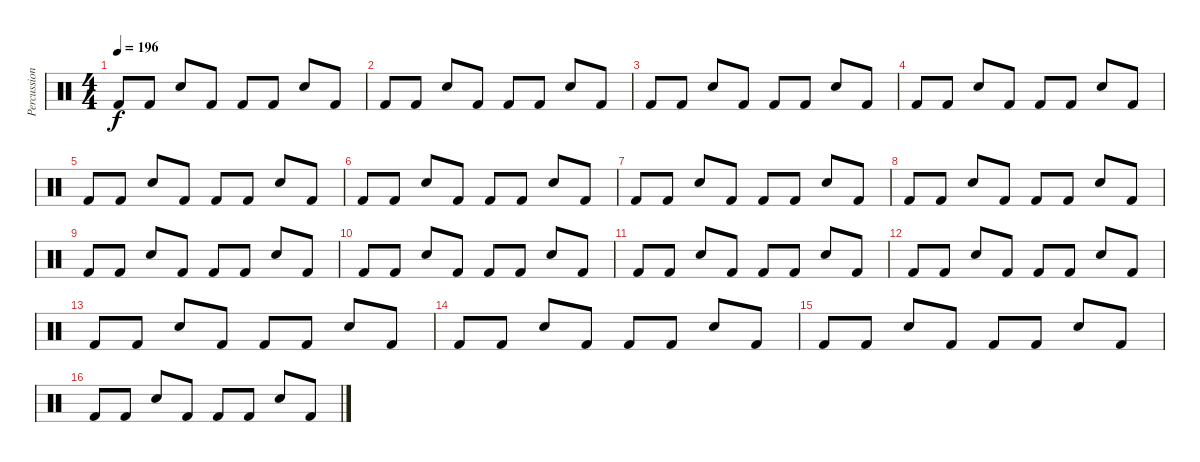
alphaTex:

\track ("Percussion" "Percussion") {instrument percussion}
\staff {score}
\articulation defaults
\ts (4 4)
\tempo 196
\clef neutral
\ks c "Kick (hit) 2".8{dy f} "Kick (hit) 2".8 "Electric Snare (hit)".8 "Kick (hit) 2".8 "Kick (hit) 2".8 "Kick (hit) 2".8 "Electric Snare (hit)".8 "Kick (hit) 2".8
|
"Kick (hit) 2".8 "Kick (hit) 2".8 "Electric Snare (hit)".8 "Kick (hit) 2".8 "Kick (hit) 2".8 "Kick (hit) 2".8 "Electric Snare (hit)".8 "Kick (hit) 2".8 |
"Kick (hit) 2".8 "Kick (hit) 2".8 "Electric Snare (hit)".8 "Kick (hit) 2".8 "Kick (hit) 2".8 "Kick (hit) 2".8 "Electric Snare (hit)".8 "Kick (hit) 2".8 |
"Kick (hit) 2".8 "Kick (hit) 2".8 "Electric Snare (hit)".8 "Kick (hit) 2".8 "Kick (hit) 2".8 "Kick (hit) 2".8 "Electric Snare (hit)".8 "Kick (hit) 2".8 |
"Kick (hit) 2".8 "Kick (hit) 2".8 "Electric Snare (hit)".8 "Kick (hit) 2".8 "Kick (hit) 2".8 "Kick (hit) 2".8 "Electric Snare (hit)".8 "Kick (hit) 2".8 |
"Kick (hit) 2".8 "Kick (hit) 2".8 "Electric Snare (hit)".8 "Kick (hit) 2".8 "Kick (hit) 2".8 "Kick (hit) 2".8 "Electric Snare (hit)".8 "Kick (hit) 2".8 |
"Kick (hit) 2".8 "Kick (hit) 2".8 "Electric Snare (hit)".8 "Kick (hit) 2".8 "Kick (hit) 2".8 "Kick (hit) 2".8 "Electric Snare (hit)".8 "Kick (hit) 2".8 |
"Kick (hit) 2".8 "Kick (hit) 2".8 "Electric Snare (hit)".8 "Kick (hit) 2".8 "Kick (hit) 2".8 "Kick (hit) 2".8 "Electric Snare (hit)".8 "Kick (hit) 2".8 |
"Kick (hit) 2".8 "Kick (hit) 2".8 "Electric Snare (hit)".8 "Kick (hit) 2".8 "Kick (hit) 2".8 "Kick (hit) 2".8 "Electric Snare (hit)".8 "Kick (hit) 2".8 |
"Kick (hit) 2".8 "Kick (hit) 2".8 "Electric Snare (hit)".8 "Kick (hit) 2".8 "Kick (hit) 2".8 "Kick (hit) 2".8 "Electric Snare (hit)".8 "Kick (hit) 2".8 |
"Kick (hit) 2".8 "Kick (hit) 2".8 "Electric Snare (hit)".8 "Kick (hit) 2".8 "Kick (hit) 2".8 "Kick (hit) 2".8 "Electric Snare (hit)".8 "Kick (hit) 2".8 |
"Kick (hit) 2".8 "Kick (hit) 2".8 "Electric Snare (hit)".8 "Kick (hit) 2".8 "Kick (hit) 2".8 "Kick (hit) 2".8 "Electric Snare (hit)".8 "Kick (hit) 2".8 |
"Kick (hit) 2".8 "Kick (hit) 2".8 "Electric Snare (hit)".8 "Kick (hit) 2".8 "Kick (hit) 2".8 "Kick (hit) 2".8 "Electric Snare (hit)".8 "Kick (hit) 2".8 |
"Kick (hit) 2".8 "Kick (hit) 2".8 "Electric Snare (hit)".8 "Kick (hit) 2".8 "Kick (hit) 2".8 "Kick (hit) 2".8 "Electric Snare (hit)".8 "Kick (hit) 2".8 |
"Kick (hit) 2".8 "Kick (hit) 2".8 "Electric Snare (hit)".8 "Kick (hit) 2".8 "Kick (hit) 2".8 "Kick (hit) 2".8 "Electric Snare (hit)".8 "Kick (hit) 2".8 |
"Kick (hit) 2".8 "Kick (hit) 2".8 "Electric Snare (hit)".8 "Kick (hit) 2".8 "Kick (hit) 2".8 "Kick (hit) 2".8 "Electric Snare (hit)".8 "Kick (hit) 2".8
